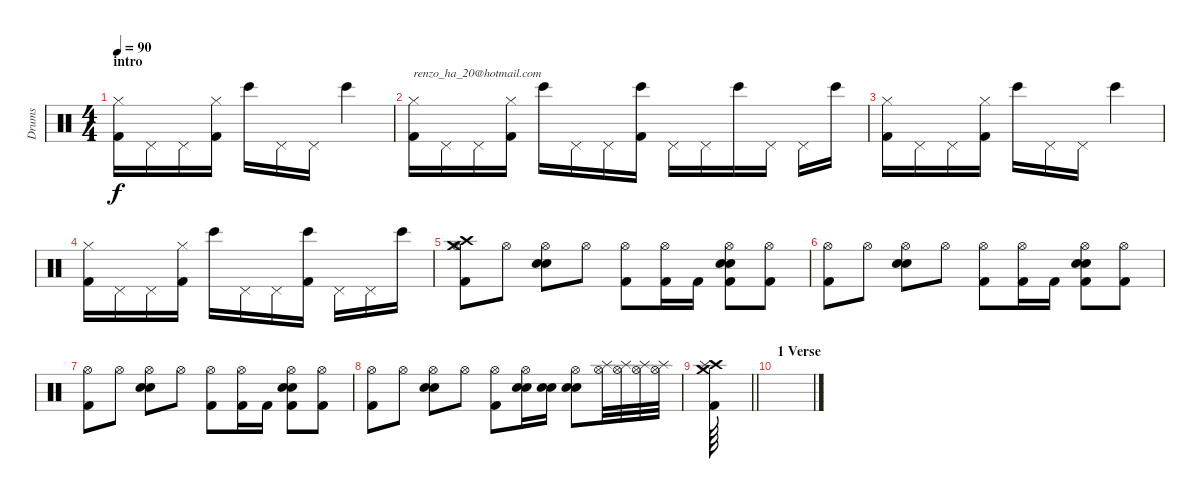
\track ("Drums" "Drums") {instrument percussion}
\staff {score}
\articulation defaults
\ts (4 4)
\section ("" "intro")
\tempo 90
\clef neutral
\ks c
("Hi-Hat (closed)" "Kick (hit) 2").16{dy f} "Pedal Hi-Hat (hit)".16 "Pedal Hi-Hat (hit)".16 ("Hi-Hat (closed)" "Kick (hit) 2").16 "Bongo High (hit)".16 "Pedal Hi-Hat (hit)".16 "Pedal Hi-Hat (hit)".16 "Bongo High (hit)".4 |
("Hi-Hat (closed)" "Kick (hit) 2").16{txt "renzo_ha_20@hotmail.com"} "Pedal Hi-Hat (hit)".16 "Pedal Hi-Hat (hit)".16 ("Hi-Hat (closed)" "Kick (hit) 2").16 "Bongo High (hit)".16 "Pedal Hi-Hat (hit)".16 "Pedal Hi-Hat (hit)".16 ("Bongo High (hit)" "Kick (hit) 2").16 "Pedal Hi-Hat (hit)".16 "Pedal Hi-Hat (hit)".16 "Bongo High (hit)".16 "Pedal Hi-Hat (hit)".16 "Pedal Hi-Hat (hit)".16 "Bongo High (hit)".16 |
("Hi-Hat (closed)" "Kick (hit) 2").16 "Pedal Hi-Hat (hit)".16 "Pedal Hi-Hat (hit)".16 ("Hi-Hat (closed)" "Kick (hit) 2").16 "Bongo High (hit)".16 "Pedal Hi-Hat (hit)".16 "Pedal Hi-Hat (hit)".16 "Bongo High (hit)".4 |
("Hi-Hat (closed)" "Kick (hit) 2").16 "Pedal Hi-Hat (hit)".16 "Pedal Hi-Hat (hit)".16 ("Hi-Hat (closed)" "Kick (hit) 2").16 "Bongo High (hit)".16 "Pedal Hi-Hat (hit)".16 "Pedal Hi-Hat (hit)".16 ("Bongo High (hit)" "Kick (hit) 2").16 "Pedal Hi-Hat (hit)".16 "Pedal Hi-Hat (hit)".16 "Bongo High (hit)".16 |
("Hi-Hat (open)" "Crash high (hit)" "Crash medium (hit)" "Kick (hit) 2").8 "Hi-Hat (open)".8 ("Hi-Hat (open)" "Electric Snare (hit)" "Electric Snare (hit)").8 "Hi-Hat (open)".8 ("Hi-Hat (open)" "Kick (hit) 2").8 ("Hi-Hat (open)" "Kick (hit) 2").16 "Kick (hit) 2".16 ("Hi-Hat (open)" "Electric Snare (hit)" "Electric Snare (hit)" "Kick (hit) 2").8 ("Hi-Hat (open)" "Kick (hit) 2").8 |
("Hi-Hat (open)" "Kick (hit) 2").8 "Hi-Hat (open)".8 ("Hi-Hat (open)" "Electric Snare (hit)" "Electric Snare (hit)").8 "Hi-Hat (open)".8 ("Hi-Hat (open)" "Kick (hit) 2").8 ("Hi-Hat (open)" "Kick (hit) 2").16 "Kick (hit) 2".16 ("Hi-Hat (open)" "Electric Snare (hit)" "Electric Snare (hit)" "Kick (hit) 2").8 ("Hi-Hat (open)" "Kick (hit) 2").8 |
("Hi-Hat (open)" "Kick (hit) 2").8 "Hi-Hat (open)".8 ("Hi-Hat (open)" "Electric Snare (hit)" "Electric Snare (hit)").8 "Hi-Hat (open)".8 ("Hi-Hat (open)" "Kick (hit) 2").8 ("Hi-Hat (open)" "Kick (hit) 2").16 "Kick (hit) 2".16 ("Hi-Hat (open)" "Electric Snare (hit)" "Electric Snare (hit)" "Kick (hit) 2").8 ("Hi-Hat (open)" "Kick (hit) 2").8 |
("Hi-Hat (open)" "Kick (hit) 2").8 "Hi-Hat (open)".8 ("Hi-Hat (open)" "Electric Snare (hit)" "Electric Snare (hit)").8 "Hi-Hat (open)".8 ("Hi-Hat (open)" "Kick (hit) 2").8 ("Hi-Hat (open)" "Electric Snare (hit)" "Electric Snare (hit)").16 ("Electric Snare (hit)" "Electric Snare (hit)").16 ("Hi-Hat (open)" "Electric Snare (hit)" "Electric Snare (hit)").8 ("Hi-Hat (open)" "Splash (hit)").32 ("Hi-Hat (open)" "Splash (hit)").32 ("Hi-Hat (open)" "Splash (hit)").32 ("Hi-Hat (open)" "Splash (hit)").32 |
\barLineRight lightlight
("Crash high (hit)" "Crash medium (hit)" "Splash (hit)" "Kick (hit) 2").64 |
\section ("" "1 Verse")
